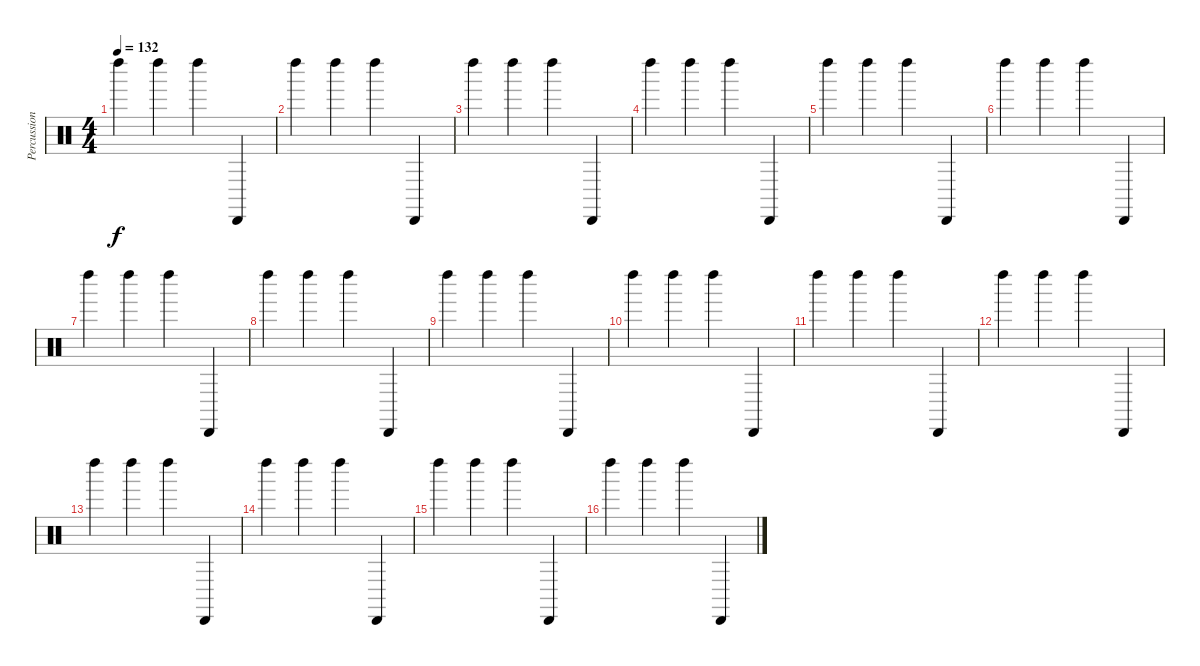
\track ("Percussion" "Percussion") {instrument percussion}
\staff {score}
\articulation defaults
\ts (4 4)
\tempo 132
\clef neutral
\ks c "Left Maraca (hit)".4{dy f} "Left Maraca (hit)".4 "Left Maraca (hit)".4 "Cabasa (hit)".4
|
"Left Maraca (hit)".4 "Left Maraca (hit)".4 "Left Maraca (hit)".4 "Cabasa (hit)".4 |
"Left Maraca (hit)".4 "Left Maraca (hit)".4 "Left Maraca (hit)".4 "Cabasa (hit)".4 |
"Left Maraca (hit)".4 "Left Maraca (hit)".4 "Left Maraca (hit)".4 "Cabasa (hit)".4 |
"Left Maraca (hit)".4 "Left Maraca (hit)".4 "Left Maraca (hit)".4 "Cabasa (hit)".4 |
"Left Maraca (hit)".4 "Left Maraca (hit)".4 "Left Maraca (hit)".4 "Cabasa (hit)".4 |
"Left Maraca (hit)".4 "Left Maraca (hit)".4 "Left Maraca (hit)".4 "Cabasa (hit)".4 |
"Left Maraca (hit)".4 "Left Maraca (hit)".4 "Left Maraca (hit)".4 "Cabasa (hit)".4 |
"Left Maraca (hit)".4 "Left Maraca (hit)".4 "Left Maraca (hit)".4 "Cabasa (hit)".4 |
"Left Maraca (hit)".4 "Left Maraca (hit)".4 "Left Maraca (hit)".4 "Cabasa (hit)".4 |
"Left Maraca (hit)".4 "Left Maraca (hit)".4 "Left Maraca (hit)".4 "Cabasa (hit)".4 |
"Left Maraca (hit)".4 "Left Maraca (hit)".4 "Left Maraca (hit)".4 "Cabasa (hit)".4 |
"Left Maraca (hit)".4 "Left Maraca (hit)".4 "Left Maraca (hit)".4 "Cabasa (hit)".4 |
"Left Maraca (hit)".4 "Left Maraca (hit)".4 "Left Maraca (hit)".4 "Cabasa (hit)".4 |
"Left Maraca (hit)".4 "Left Maraca (hit)".4 "Left Maraca (hit)".4 "Cabasa (hit)".4 |
"Left Maraca (hit)".4 "Left Maraca (hit)".4 "Left Maraca (hit)".4 "Cabasa (hit)".4
